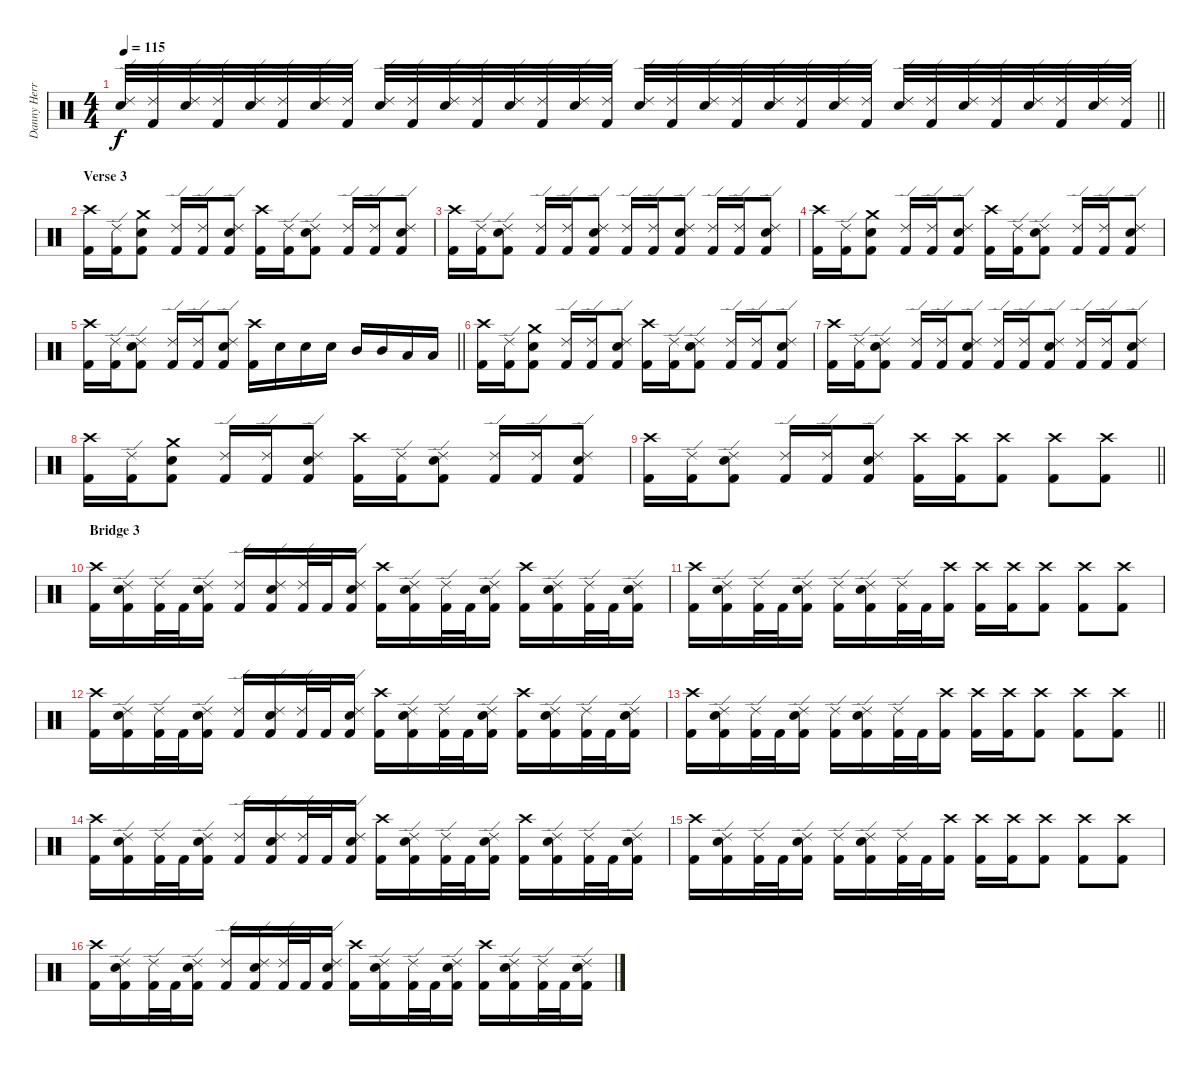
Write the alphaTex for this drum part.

\track ("Danny Herrera " "Danny Herr") {instrument percussion}
\staff {score}
\articulation defaults
\ts (4 4)
\tempo 115
\clef neutral
\barLineRight lightlight
\ks c
("Snare (hit) 2" "Ride (edge) 2").32{dy f} ("Kick (hit) 2" "Ride (edge) 2").32 ("Snare (hit) 2" "Ride (edge) 2").32 ("Kick (hit) 2" "Ride (edge) 2").32 ("Snare (hit) 2" "Ride (edge) 2").32 ("Kick (hit) 2" "Ride (edge) 2").32 ("Snare (hit) 2" "Ride (edge) 2").32 ("Kick (hit) 2" "Ride (edge) 2").32 ("Snare (hit) 2" "Ride (edge) 2").32 ("Kick (hit) 2" "Ride (edge) 2").32 ("Snare (hit) 2" "Ride (edge) 2").32 ("Kick (hit) 2" "Ride (edge) 2").32 ("Snare (hit) 2" "Ride (edge) 2").32 ("Kick (hit) 2" "Ride (edge) 2").32 ("Snare (hit) 2" "Ride (edge) 2").32 ("Kick (hit) 2" "Ride (edge) 2").32 ("Snare (hit) 2" "Ride (edge) 2").32 ("Kick (hit) 2" "Ride (edge) 2").32 ("Snare (hit) 2" "Ride (edge) 2").32 ("Kick (hit) 2" "Ride (edge) 2").32 ("Snare (hit) 2" "Ride (edge) 2").32 ("Kick (hit) 2" "Ride (edge) 2").32 ("Snare (hit) 2" "Ride (edge) 2").32 ("Kick (hit) 2" "Ride (edge) 2").32 ("Snare (hit) 2" "Ride (edge) 2").32 ("Kick (hit) 2" "Ride (edge) 2").32 ("Snare (hit) 2" "Ride (edge) 2").32 ("Kick (hit) 2" "Ride (edge) 2").32 ("Snare (hit) 2" "Ride (edge) 2").32 ("Kick (hit) 2" "Ride (edge) 2").32 ("Snare (hit) 2" "Ride (edge) 2").32 ("Kick (hit) 2" "Ride (edge) 2").32 |
\section ("" "Verse 3")
("Kick (hit) 2" "Crash high (hit)").16 ("Kick (hit) 2" "Ride (edge) 2").16 ("Kick (hit) 2" "Snare (hit) 2" "Crash medium (hit)").8 ("Kick (hit) 2" "Ride (edge) 2").16 ("Kick (hit) 2" "Ride (edge) 2").16 ("Kick (hit) 2" "Snare (hit) 2" "Ride (edge) 2").8 ("Kick (hit) 2" "Crash high (hit)").16 ("Kick (hit) 2" "Ride (edge) 2").16 ("Kick (hit) 2" "Snare (hit) 2" "Ride (edge) 2").8 ("Kick (hit) 2" "Ride (edge) 2").16 ("Kick (hit) 2" "Ride (edge) 2").16 ("Kick (hit) 2" "Snare (hit) 2" "Ride (edge) 2").8 |
("Kick (hit) 2" "Crash high (hit)").16 ("Kick (hit) 2" "Ride (edge) 2").16 ("Kick (hit) 2" "Snare (hit) 2" "Ride (edge) 2").8 ("Kick (hit) 2" "Ride (edge) 2").16 ("Kick (hit) 2" "Ride (edge) 2").16 ("Kick (hit) 2" "Snare (hit) 2" "Ride (edge) 2").8 ("Kick (hit) 2" "Ride (edge) 2").16 ("Kick (hit) 2" "Ride (edge) 2").16 ("Kick (hit) 2" "Snare (hit) 2" "Ride (edge) 2").8 ("Kick (hit) 2" "Ride (edge) 2").16 ("Kick (hit) 2" "Ride (edge) 2").16 ("Kick (hit) 2" "Snare (hit) 2" "Ride (edge) 2").8 |
("Kick (hit) 2" "Crash high (hit)").16 ("Kick (hit) 2" "Ride (edge) 2").16 ("Kick (hit) 2" "Snare (hit) 2" "Crash medium (hit)").8 ("Kick (hit) 2" "Ride (edge) 2").16 ("Kick (hit) 2" "Ride (edge) 2").16 ("Kick (hit) 2" "Snare (hit) 2" "Ride (edge) 2").8 ("Kick (hit) 2" "Crash high (hit)").16 ("Kick (hit) 2" "Ride (edge) 2").16 ("Kick (hit) 2" "Snare (hit) 2" "Ride (edge) 2").8 ("Kick (hit) 2" "Ride (edge) 2").16 ("Kick (hit) 2" "Ride (edge) 2").16 ("Kick (hit) 2" "Snare (hit) 2" "Ride (edge) 2").8 |
\barLineRight lightlight
("Kick (hit) 2" "Crash high (hit)").16 ("Kick (hit) 2" "Ride (edge) 2").16 ("Kick (hit) 2" "Snare (hit) 2" "Ride (edge) 2").8 ("Kick (hit) 2" "Ride (edge) 2").16 ("Kick (hit) 2" "Ride (edge) 2").16 ("Kick (hit) 2" "Snare (hit) 2" "Ride (edge) 2").8 ("Kick (hit) 2" "Crash high (hit)").16 "Snare (hit) 2".16 "Snare (hit) 2".16 "Snare (hit) 2".16 "Mid Tom (hit)".16 "Mid Tom (hit)".16 "Low Tom (hit)".16 "Low Tom (hit)".16 |
("Kick (hit) 2" "Crash high (hit)").16 ("Kick (hit) 2" "Ride (edge) 2").16 ("Kick (hit) 2" "Snare (hit) 2" "Crash medium (hit)").8 ("Kick (hit) 2" "Ride (edge) 2").16 ("Kick (hit) 2" "Ride (edge) 2").16 ("Kick (hit) 2" "Snare (hit) 2" "Ride (edge) 2").8 ("Kick (hit) 2" "Crash high (hit)").16 ("Kick (hit) 2" "Ride (edge) 2").16 ("Kick (hit) 2" "Snare (hit) 2" "Ride (edge) 2").8 ("Kick (hit) 2" "Ride (edge) 2").16 ("Kick (hit) 2" "Ride (edge) 2").16 ("Kick (hit) 2" "Snare (hit) 2" "Ride (edge) 2").8 |
("Kick (hit) 2" "Crash high (hit)").16 ("Kick (hit) 2" "Ride (edge) 2").16 ("Kick (hit) 2" "Snare (hit) 2" "Ride (edge) 2").8 ("Kick (hit) 2" "Ride (edge) 2").16 ("Kick (hit) 2" "Ride (edge) 2").16 ("Kick (hit) 2" "Snare (hit) 2" "Ride (edge) 2").8 ("Kick (hit) 2" "Ride (edge) 2").16 ("Kick (hit) 2" "Ride (edge) 2").16 ("Kick (hit) 2" "Snare (hit) 2" "Ride (edge) 2").8 ("Kick (hit) 2" "Ride (edge) 2").16 ("Kick (hit) 2" "Ride (edge) 2").16 ("Kick (hit) 2" "Snare (hit) 2" "Ride (edge) 2").8 |
("Kick (hit) 2" "Crash high (hit)").16 ("Kick (hit) 2" "Ride (edge) 2").16 ("Kick (hit) 2" "Snare (hit) 2" "Crash medium (hit)").8 ("Kick (hit) 2" "Ride (edge) 2").16 ("Kick (hit) 2" "Ride (edge) 2").16 ("Kick (hit) 2" "Snare (hit) 2" "Ride (edge) 2").8 ("Kick (hit) 2" "Crash high (hit)").16 ("Kick (hit) 2" "Ride (edge) 2").16 ("Kick (hit) 2" "Snare (hit) 2" "Ride (edge) 2").8 ("Kick (hit) 2" "Ride (edge) 2").16 ("Kick (hit) 2" "Ride (edge) 2").16 ("Kick (hit) 2" "Snare (hit) 2" "Ride (edge) 2").8 |
\barLineRight lightlight
("Kick (hit) 2" "Crash high (hit)").16 ("Kick (hit) 2" "Ride (edge) 2").16 ("Kick (hit) 2" "Snare (hit) 2" "Ride (edge) 2").8 ("Kick (hit) 2" "Ride (edge) 2").16 ("Kick (hit) 2" "Ride (edge) 2").16 ("Kick (hit) 2" "Snare (hit) 2" "Ride (edge) 2").8 ("Kick (hit) 2" "Crash high (hit)").16 ("Kick (hit) 2" "Crash high (hit)").16 ("Kick (hit) 2" "Crash high (hit)").8 ("Kick (hit) 2" "Crash high (hit)").8 ("Kick (hit) 2" "Crash high (hit)").8 |
\section ("" "Bridge 3")
("Kick (hit) 2" "Crash high (hit)").16 ("Kick (hit) 2" "Snare (hit) 2" "Ride (edge) 2").16 ("Kick (hit) 2" "Ride (edge) 2").32 "Kick (hit) 2".32 ("Kick (hit) 2" "Snare (hit) 2" "Ride (edge) 2").16 ("Kick (hit) 2" "Ride (edge) 2").16 ("Kick (hit) 2" "Snare (hit) 2" "Ride (edge) 2").16 ("Kick (hit) 2" "Ride (edge) 2").32 "Kick (hit) 2".32 ("Kick (hit) 2" "Snare (hit) 2" "Ride (edge) 2").16 ("Kick (hit) 2" "Crash high (hit)").16 ("Kick (hit) 2" "Snare (hit) 2" "Ride (edge) 2").16 ("Kick (hit) 2" "Ride (edge) 2").32 "Kick (hit) 2".32 ("Kick (hit) 2" "Snare (hit) 2" "Ride (edge) 2").16 ("Kick (hit) 2" "Crash high (hit)").16 ("Kick (hit) 2" "Snare (hit) 2" "Ride (edge) 2").16 ("Kick (hit) 2" "Ride (edge) 2").32 "Kick (hit) 2".32 ("Kick (hit) 2" "Snare (hit) 2" "Ride (edge) 2").16 |
("Kick (hit) 2" "Crash high (hit)").16 ("Kick (hit) 2" "Snare (hit) 2" "Ride (edge) 2").16 ("Kick (hit) 2" "Ride (edge) 2").32 "Kick (hit) 2".32 ("Kick (hit) 2" "Snare (hit) 2" "Ride (edge) 2").16 ("Kick (hit) 2" "Ride (edge) 2").16 ("Kick (hit) 2" "Snare (hit) 2" "Ride (edge) 2").16 ("Kick (hit) 2" "Ride (edge) 2").32 "Kick (hit) 2".32 ("Kick (hit) 2" "Crash high (hit)").16 ("Kick (hit) 2" "Crash high (hit)").16 ("Kick (hit) 2" "Crash high (hit)").16 ("Kick (hit) 2" "Crash high (hit)").8 ("Kick (hit) 2" "Crash high (hit)").8 ("Kick (hit) 2" "Crash high (hit)").8 |
("Kick (hit) 2" "Crash high (hit)").16 ("Kick (hit) 2" "Snare (hit) 2" "Ride (edge) 2").16 ("Kick (hit) 2" "Ride (edge) 2").32 "Kick (hit) 2".32 ("Kick (hit) 2" "Snare (hit) 2" "Ride (edge) 2").16 ("Kick (hit) 2" "Ride (edge) 2").16 ("Kick (hit) 2" "Snare (hit) 2" "Ride (edge) 2").16 ("Kick (hit) 2" "Ride (edge) 2").32 "Kick (hit) 2".32 ("Kick (hit) 2" "Snare (hit) 2" "Ride (edge) 2").16 ("Kick (hit) 2" "Crash high (hit)").16 ("Kick (hit) 2" "Snare (hit) 2" "Ride (edge) 2").16 ("Kick (hit) 2" "Ride (edge) 2").32 "Kick (hit) 2".32 ("Kick (hit) 2" "Snare (hit) 2" "Ride (edge) 2").16 ("Kick (hit) 2" "Crash high (hit)").16 ("Kick (hit) 2" "Snare (hit) 2" "Ride (edge) 2").16 ("Kick (hit) 2" "Ride (edge) 2").32 "Kick (hit) 2".32 ("Kick (hit) 2" "Snare (hit) 2" "Ride (edge) 2").16 |
\barLineRight lightlight
("Kick (hit) 2" "Crash high (hit)").16 ("Kick (hit) 2" "Snare (hit) 2" "Ride (edge) 2").16 ("Kick (hit) 2" "Ride (edge) 2").32 "Kick (hit) 2".32 ("Kick (hit) 2" "Snare (hit) 2" "Ride (edge) 2").16 ("Kick (hit) 2" "Ride (edge) 2").16 ("Kick (hit) 2" "Snare (hit) 2" "Ride (edge) 2").16 ("Kick (hit) 2" "Ride (edge) 2").32 "Kick (hit) 2".32 ("Kick (hit) 2" "Crash high (hit)").16 ("Kick (hit) 2" "Crash high (hit)").16 ("Kick (hit) 2" "Crash high (hit)").16 ("Kick (hit) 2" "Crash high (hit)").8 ("Kick (hit) 2" "Crash high (hit)").8 ("Kick (hit) 2" "Crash high (hit)").8 |
("Kick (hit) 2" "Crash high (hit)").16 ("Kick (hit) 2" "Snare (hit) 2" "Ride (edge) 2").16 ("Kick (hit) 2" "Ride (edge) 2").32 "Kick (hit) 2".32 ("Kick (hit) 2" "Snare (hit) 2" "Ride (edge) 2").16 ("Kick (hit) 2" "Ride (edge) 2").16 ("Kick (hit) 2" "Snare (hit) 2" "Ride (edge) 2").16 ("Kick (hit) 2" "Ride (edge) 2").32 "Kick (hit) 2".32 ("Kick (hit) 2" "Snare (hit) 2" "Ride (edge) 2").16 ("Kick (hit) 2" "Crash high (hit)").16 ("Kick (hit) 2" "Snare (hit) 2" "Ride (edge) 2").16 ("Kick (hit) 2" "Ride (edge) 2").32 "Kick (hit) 2".32 ("Kick (hit) 2" "Snare (hit) 2" "Ride (edge) 2").16 ("Kick (hit) 2" "Crash high (hit)").16 ("Kick (hit) 2" "Snare (hit) 2" "Ride (edge) 2").16 ("Kick (hit) 2" "Ride (edge) 2").32 "Kick (hit) 2".32 ("Kick (hit) 2" "Snare (hit) 2" "Ride (edge) 2").16 |
("Kick (hit) 2" "Crash high (hit)").16 ("Kick (hit) 2" "Snare (hit) 2" "Ride (edge) 2").16 ("Kick (hit) 2" "Ride (edge) 2").32 "Kick (hit) 2".32 ("Kick (hit) 2" "Snare (hit) 2" "Ride (edge) 2").16 ("Kick (hit) 2" "Ride (edge) 2").16 ("Kick (hit) 2" "Snare (hit) 2" "Ride (edge) 2").16 ("Kick (hit) 2" "Ride (edge) 2").32 "Kick (hit) 2".32 ("Kick (hit) 2" "Crash high (hit)").16 ("Kick (hit) 2" "Crash high (hit)").16 ("Kick (hit) 2" "Crash high (hit)").16 ("Kick (hit) 2" "Crash high (hit)").8 ("Kick (hit) 2" "Crash high (hit)").8 ("Kick (hit) 2" "Crash high (hit)").8 |
("Kick (hit) 2" "Crash high (hit)").16 ("Kick (hit) 2" "Snare (hit) 2" "Ride (edge) 2").16 ("Kick (hit) 2" "Ride (edge) 2").32 "Kick (hit) 2".32 ("Kick (hit) 2" "Snare (hit) 2" "Ride (edge) 2").16 ("Kick (hit) 2" "Ride (edge) 2").16 ("Kick (hit) 2" "Snare (hit) 2" "Ride (edge) 2").16 ("Kick (hit) 2" "Ride (edge) 2").32 "Kick (hit) 2".32 ("Kick (hit) 2" "Snare (hit) 2" "Ride (edge) 2").16 ("Kick (hit) 2" "Crash high (hit)").16 ("Kick (hit) 2" "Snare (hit) 2" "Ride (edge) 2").16 ("Kick (hit) 2" "Ride (edge) 2").32 "Kick (hit) 2".32 ("Kick (hit) 2" "Snare (hit) 2" "Ride (edge) 2").16 ("Kick (hit) 2" "Crash high (hit)").16 ("Kick (hit) 2" "Snare (hit) 2" "Ride (edge) 2").16 ("Kick (hit) 2" "Ride (edge) 2").32 "Kick (hit) 2".32 ("Kick (hit) 2" "Snare (hit) 2" "Ride (edge) 2").16
